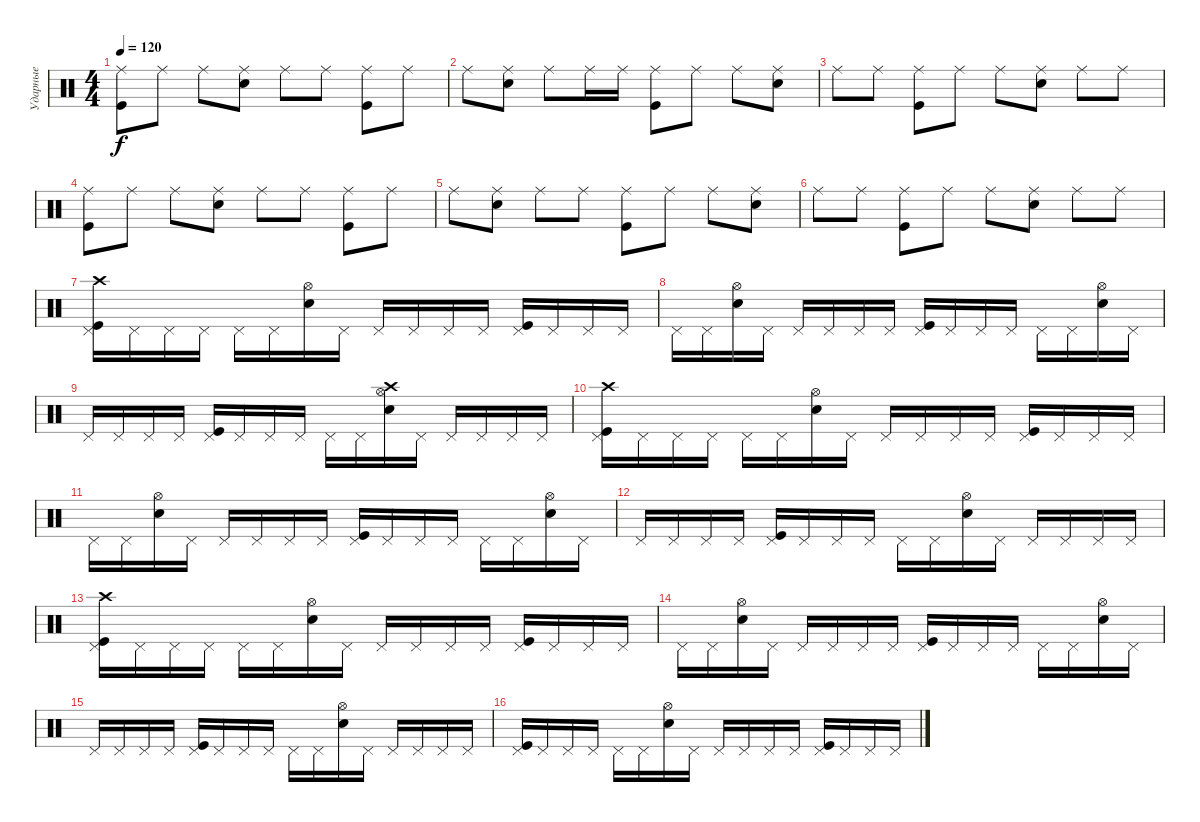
\track ("Ударные" "Ударные") {instrument percussion}
\staff {score}
\articulation defaults
\ts (4 4)
\tempo 120
\clef neutral
\ks c
("Ride (middle)" "Kick (hit)").8{dy f} "Ride (middle)".8 "Ride (middle)".8 ("Ride (middle)" "Electric Snare (hit)").8 "Ride (middle)".8 "Ride (middle)".8 ("Ride (middle)" "Kick (hit)").8 "Ride (middle)".8 |
"Ride (middle)".8 ("Ride (middle)" "Electric Snare (hit)").8 "Ride (middle)".8 "Ride (middle)".16 "Ride (middle)".16 ("Ride (middle)" "Kick (hit)").8 "Ride (middle)".8 "Ride (middle)".8 ("Ride (middle)" "Electric Snare (hit)").8 |
"Ride (middle)".8 "Ride (middle)".8 ("Ride (middle)" "Kick (hit)").8 "Ride (middle)".8 "Ride (middle)".8 ("Ride (middle)" "Electric Snare (hit)").8 "Ride (middle)".8 "Ride (middle)".8 |
("Ride (middle)" "Kick (hit)").8 "Ride (middle)".8 "Ride (middle)".8 ("Ride (middle)" "Electric Snare (hit)").8 "Ride (middle)".8 "Ride (middle)".8 ("Ride (middle)" "Kick (hit)").8 "Ride (middle)".8 |
"Ride (middle)".8 ("Ride (middle)" "Electric Snare (hit)").8 "Ride (middle)".8 "Ride (middle)".8 ("Ride (middle)" "Kick (hit)").8 "Ride (middle)".8 "Ride (middle)".8 ("Ride (middle)" "Electric Snare (hit)").8 |
"Ride (middle)".8 "Ride (middle)".8 ("Ride (middle)" "Kick (hit)").8 "Ride (middle)".8 "Ride (middle)".8 ("Ride (middle)" "Electric Snare (hit)").8 "Ride (middle)".8 "Ride (middle)".8 |
("Pedal Hi-Hat (hit)" "Kick (hit)" "Crash high (hit)").16 "Pedal Hi-Hat (hit)".16 "Pedal Hi-Hat (hit)".16 "Pedal Hi-Hat (hit)".16 "Pedal Hi-Hat (hit)".16 "Pedal Hi-Hat (hit)".16 ("Hi-Hat (open)" "Electric Snare (hit)").16 "Pedal Hi-Hat (hit)".16 "Pedal Hi-Hat (hit)".16 "Pedal Hi-Hat (hit)".16 "Pedal Hi-Hat (hit)".16 "Pedal Hi-Hat (hit)".16 ("Pedal Hi-Hat (hit)" "Kick (hit)").16 "Pedal Hi-Hat (hit)".16 "Pedal Hi-Hat (hit)".16 "Pedal Hi-Hat (hit)".16 |
"Pedal Hi-Hat (hit)".16 "Pedal Hi-Hat (hit)".16 ("Hi-Hat (open)" "Electric Snare (hit)").16 "Pedal Hi-Hat (hit)".16 "Pedal Hi-Hat (hit)".16 "Pedal Hi-Hat (hit)".16 "Pedal Hi-Hat (hit)".16 "Pedal Hi-Hat (hit)".16 ("Pedal Hi-Hat (hit)" "Kick (hit)").16 "Pedal Hi-Hat (hit)".16 "Pedal Hi-Hat (hit)".16 "Pedal Hi-Hat (hit)".16 "Pedal Hi-Hat (hit)".16 "Pedal Hi-Hat (hit)".16 ("Hi-Hat (open)" "Electric Snare (hit)").16 "Pedal Hi-Hat (hit)".16 |
"Pedal Hi-Hat (hit)".16 "Pedal Hi-Hat (hit)".16 "Pedal Hi-Hat (hit)".16 "Pedal Hi-Hat (hit)".16 ("Pedal Hi-Hat (hit)" "Kick (hit)").16 "Pedal Hi-Hat (hit)".16 "Pedal Hi-Hat (hit)".16 "Pedal Hi-Hat (hit)".16 "Pedal Hi-Hat (hit)".16 "Pedal Hi-Hat (hit)".16 ("Hi-Hat (open)" "Electric Snare (hit)" "Crash high (hit)").16 "Pedal Hi-Hat (hit)".16 "Pedal Hi-Hat (hit)".16 "Pedal Hi-Hat (hit)".16 "Pedal Hi-Hat (hit)".16 "Pedal Hi-Hat (hit)".16 |
("Pedal Hi-Hat (hit)" "Kick (hit)" "Crash high (hit)").16 "Pedal Hi-Hat (hit)".16 "Pedal Hi-Hat (hit)".16 "Pedal Hi-Hat (hit)".16 "Pedal Hi-Hat (hit)".16 "Pedal Hi-Hat (hit)".16 ("Hi-Hat (open)" "Electric Snare (hit)").16 "Pedal Hi-Hat (hit)".16 "Pedal Hi-Hat (hit)".16 "Pedal Hi-Hat (hit)".16 "Pedal Hi-Hat (hit)".16 "Pedal Hi-Hat (hit)".16 ("Pedal Hi-Hat (hit)" "Kick (hit)").16 "Pedal Hi-Hat (hit)".16 "Pedal Hi-Hat (hit)".16 "Pedal Hi-Hat (hit)".16 |
"Pedal Hi-Hat (hit)".16 "Pedal Hi-Hat (hit)".16 ("Hi-Hat (open)" "Electric Snare (hit)").16 "Pedal Hi-Hat (hit)".16 "Pedal Hi-Hat (hit)".16 "Pedal Hi-Hat (hit)".16 "Pedal Hi-Hat (hit)".16 "Pedal Hi-Hat (hit)".16 ("Pedal Hi-Hat (hit)" "Kick (hit)").16 "Pedal Hi-Hat (hit)".16 "Pedal Hi-Hat (hit)".16 "Pedal Hi-Hat (hit)".16 "Pedal Hi-Hat (hit)".16 "Pedal Hi-Hat (hit)".16 ("Hi-Hat (open)" "Electric Snare (hit)").16 "Pedal Hi-Hat (hit)".16 |
"Pedal Hi-Hat (hit)".16 "Pedal Hi-Hat (hit)".16 "Pedal Hi-Hat (hit)".16 "Pedal Hi-Hat (hit)".16 ("Pedal Hi-Hat (hit)" "Kick (hit)").16 "Pedal Hi-Hat (hit)".16 "Pedal Hi-Hat (hit)".16 "Pedal Hi-Hat (hit)".16 "Pedal Hi-Hat (hit)".16 "Pedal Hi-Hat (hit)".16 ("Hi-Hat (open)" "Electric Snare (hit)").16 "Pedal Hi-Hat (hit)".16 "Pedal Hi-Hat (hit)".16 "Pedal Hi-Hat (hit)".16 "Pedal Hi-Hat (hit)".16 "Pedal Hi-Hat (hit)".16 |
("Pedal Hi-Hat (hit)" "Kick (hit)" "Crash high (hit)").16 "Pedal Hi-Hat (hit)".16 "Pedal Hi-Hat (hit)".16 "Pedal Hi-Hat (hit)".16 "Pedal Hi-Hat (hit)".16 "Pedal Hi-Hat (hit)".16 ("Hi-Hat (open)" "Electric Snare (hit)").16 "Pedal Hi-Hat (hit)".16 "Pedal Hi-Hat (hit)".16 "Pedal Hi-Hat (hit)".16 "Pedal Hi-Hat (hit)".16 "Pedal Hi-Hat (hit)".16 ("Pedal Hi-Hat (hit)" "Kick (hit)").16 "Pedal Hi-Hat (hit)".16 "Pedal Hi-Hat (hit)".16 "Pedal Hi-Hat (hit)".16 |
"Pedal Hi-Hat (hit)".16 "Pedal Hi-Hat (hit)".16 ("Hi-Hat (open)" "Electric Snare (hit)").16 "Pedal Hi-Hat (hit)".16 "Pedal Hi-Hat (hit)".16 "Pedal Hi-Hat (hit)".16 "Pedal Hi-Hat (hit)".16 "Pedal Hi-Hat (hit)".16 ("Pedal Hi-Hat (hit)" "Kick (hit)").16 "Pedal Hi-Hat (hit)".16 "Pedal Hi-Hat (hit)".16 "Pedal Hi-Hat (hit)".16 "Pedal Hi-Hat (hit)".16 "Pedal Hi-Hat (hit)".16 ("Hi-Hat (open)" "Electric Snare (hit)").16 "Pedal Hi-Hat (hit)".16 |
"Pedal Hi-Hat (hit)".16 "Pedal Hi-Hat (hit)".16 "Pedal Hi-Hat (hit)".16 "Pedal Hi-Hat (hit)".16 ("Pedal Hi-Hat (hit)" "Kick (hit)").16 "Pedal Hi-Hat (hit)".16 "Pedal Hi-Hat (hit)".16 "Pedal Hi-Hat (hit)".16 "Pedal Hi-Hat (hit)".16 "Pedal Hi-Hat (hit)".16 ("Hi-Hat (open)" "Electric Snare (hit)").16 "Pedal Hi-Hat (hit)".16 "Pedal Hi-Hat (hit)".16 "Pedal Hi-Hat (hit)".16 "Pedal Hi-Hat (hit)".16 "Pedal Hi-Hat (hit)".16 |
("Pedal Hi-Hat (hit)" "Kick (hit)").16 "Pedal Hi-Hat (hit)".16 "Pedal Hi-Hat (hit)".16 "Pedal Hi-Hat (hit)".16 "Pedal Hi-Hat (hit)".16 "Pedal Hi-Hat (hit)".16 ("Hi-Hat (open)" "Electric Snare (hit)").16 "Pedal Hi-Hat (hit)".16 "Pedal Hi-Hat (hit)".16 "Pedal Hi-Hat (hit)".16 "Pedal Hi-Hat (hit)".16 "Pedal Hi-Hat (hit)".16 ("Pedal Hi-Hat (hit)" "Kick (hit)").16 "Pedal Hi-Hat (hit)".16 "Pedal Hi-Hat (hit)".16 "Pedal Hi-Hat (hit)".16
